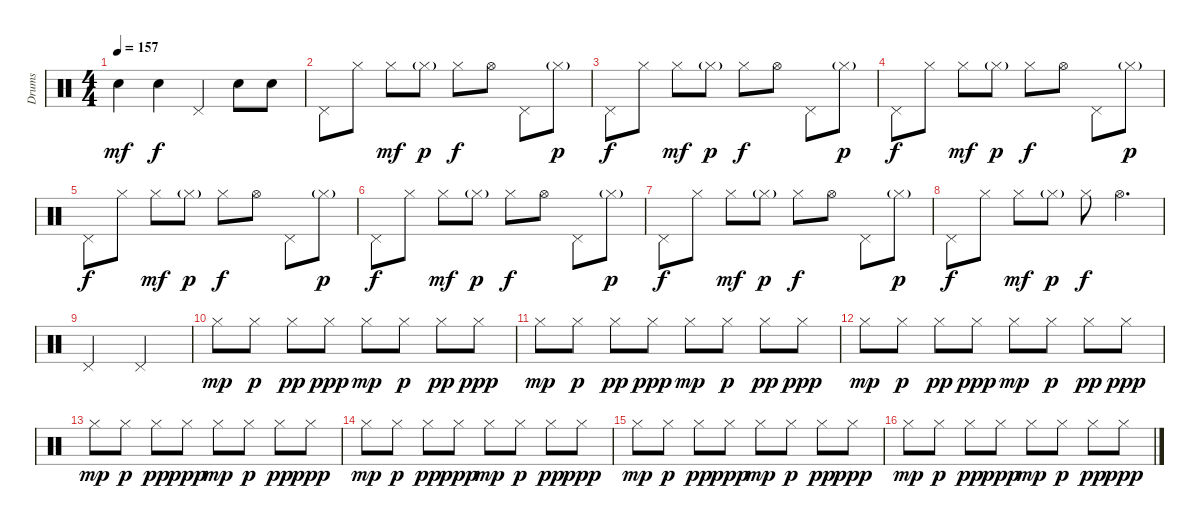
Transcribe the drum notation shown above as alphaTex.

\track ("Drums" "Drums") {instrument percussion}
\staff {score}
\articulation defaults
\ts (4 4)
\tempo 157
\clef neutral
\ks c "Electric Snare (hit)".4{dy mf} "Electric Snare (hit)".4{dy f} "Pedal Hi-Hat (hit)".4 "Electric Snare (hit)".8 "Electric Snare (hit)".8
|
"Pedal Hi-Hat (hit)".8{volume 5} "Hi-Hat (closed)".8 "Hi-Hat (closed)".8{dy mf} "Hi-Hat (closed)"{g}.8{dy p} "Hi-Hat (closed)".8{dy f} "Hi-Hat (open)".8 "Pedal Hi-Hat (hit)".8 "Hi-Hat (closed)"{g}.8{dy p} |
"Pedal Hi-Hat (hit)".8{dy f} "Hi-Hat (closed)".8 "Hi-Hat (closed)".8{dy mf} "Hi-Hat (closed)"{g}.8{dy p} "Hi-Hat (closed)".8{dy f} "Hi-Hat (open)".8 "Pedal Hi-Hat (hit)".8 "Hi-Hat (closed)"{g}.8{dy p} |
"Pedal Hi-Hat (hit)".8{dy f} "Hi-Hat (closed)".8 "Hi-Hat (closed)".8{dy mf} "Hi-Hat (closed)"{g}.8{dy p} "Hi-Hat (closed)".8{dy f} "Hi-Hat (open)".8 "Pedal Hi-Hat (hit)".8 "Hi-Hat (closed)"{g}.8{dy p} |
"Pedal Hi-Hat (hit)".8{dy f} "Hi-Hat (closed)".8 "Hi-Hat (closed)".8{dy mf} "Hi-Hat (closed)"{g}.8{dy p} "Hi-Hat (closed)".8{dy f} "Hi-Hat (open)".8 "Pedal Hi-Hat (hit)".8 "Hi-Hat (closed)"{g}.8{dy p} |
"Pedal Hi-Hat (hit)".8{dy f} "Hi-Hat (closed)".8 "Hi-Hat (closed)".8{dy mf} "Hi-Hat (closed)"{g}.8{dy p} "Hi-Hat (closed)".8{dy f} "Hi-Hat (open)".8 "Pedal Hi-Hat (hit)".8 "Hi-Hat (closed)"{g}.8{dy p} |
"Pedal Hi-Hat (hit)".8{dy f} "Hi-Hat (closed)".8 "Hi-Hat (closed)".8{dy mf} "Hi-Hat (closed)"{g}.8{dy p} "Hi-Hat (closed)".8{dy f} "Hi-Hat (open)".8 "Pedal Hi-Hat (hit)".8 "Hi-Hat (closed)"{g}.8{dy p} |
"Pedal Hi-Hat (hit)".8{dy f} "Hi-Hat (closed)".8 "Hi-Hat (closed)".8{dy mf} "Hi-Hat (closed)"{g}.8{dy p} "Hi-Hat (closed)".8{dy f} "Hi-Hat (open)".4{d} |
"Pedal Hi-Hat (hit)".2 "Pedal Hi-Hat (hit)".2 |
"Hi-Hat (closed)".8{dy mp} "Hi-Hat (closed)".8{dy p} "Hi-Hat (closed)".8{dy pp} "Hi-Hat (closed)".8{dy ppp} "Hi-Hat (closed)".8{dy mp} "Hi-Hat (closed)".8{dy p} "Hi-Hat (closed)".8{dy pp} "Hi-Hat (closed)".8{dy ppp} |
"Hi-Hat (closed)".8{dy mp} "Hi-Hat (closed)".8{dy p} "Hi-Hat (closed)".8{dy pp} "Hi-Hat (closed)".8{dy ppp} "Hi-Hat (closed)".8{dy mp} "Hi-Hat (closed)".8{dy p} "Hi-Hat (closed)".8{dy pp} "Hi-Hat (closed)".8{dy ppp} |
"Hi-Hat (closed)".8{dy mp} "Hi-Hat (closed)".8{dy p} "Hi-Hat (closed)".8{dy pp} "Hi-Hat (closed)".8{dy ppp} "Hi-Hat (closed)".8{dy mp} "Hi-Hat (closed)".8{dy p} "Hi-Hat (closed)".8{dy pp} "Hi-Hat (closed)".8{dy ppp} |
"Hi-Hat (closed)".8{dy mp} "Hi-Hat (closed)".8{dy p} "Hi-Hat (closed)".8{dy pp} "Hi-Hat (closed)".8{dy ppp} "Hi-Hat (closed)".8{dy mp} "Hi-Hat (closed)".8{dy p} "Hi-Hat (closed)".8{dy pp} "Hi-Hat (closed)".8{dy ppp} |
"Hi-Hat (closed)".8{dy mp} "Hi-Hat (closed)".8{dy p} "Hi-Hat (closed)".8{dy pp} "Hi-Hat (closed)".8{dy ppp} "Hi-Hat (closed)".8{dy mp} "Hi-Hat (closed)".8{dy p} "Hi-Hat (closed)".8{dy pp} "Hi-Hat (closed)".8{dy ppp} |
"Hi-Hat (closed)".8{dy mp} "Hi-Hat (closed)".8{dy p} "Hi-Hat (closed)".8{dy pp} "Hi-Hat (closed)".8{dy ppp} "Hi-Hat (closed)".8{dy mp} "Hi-Hat (closed)".8{dy p} "Hi-Hat (closed)".8{dy pp} "Hi-Hat (closed)".8{dy ppp} |
"Hi-Hat (closed)".8{dy mp} "Hi-Hat (closed)".8{dy p} "Hi-Hat (closed)".8{dy pp} "Hi-Hat (closed)".8{dy ppp} "Hi-Hat (closed)".8{dy mp} "Hi-Hat (closed)".8{dy p} "Hi-Hat (closed)".8{dy pp} "Hi-Hat (closed)".8{dy ppp}
